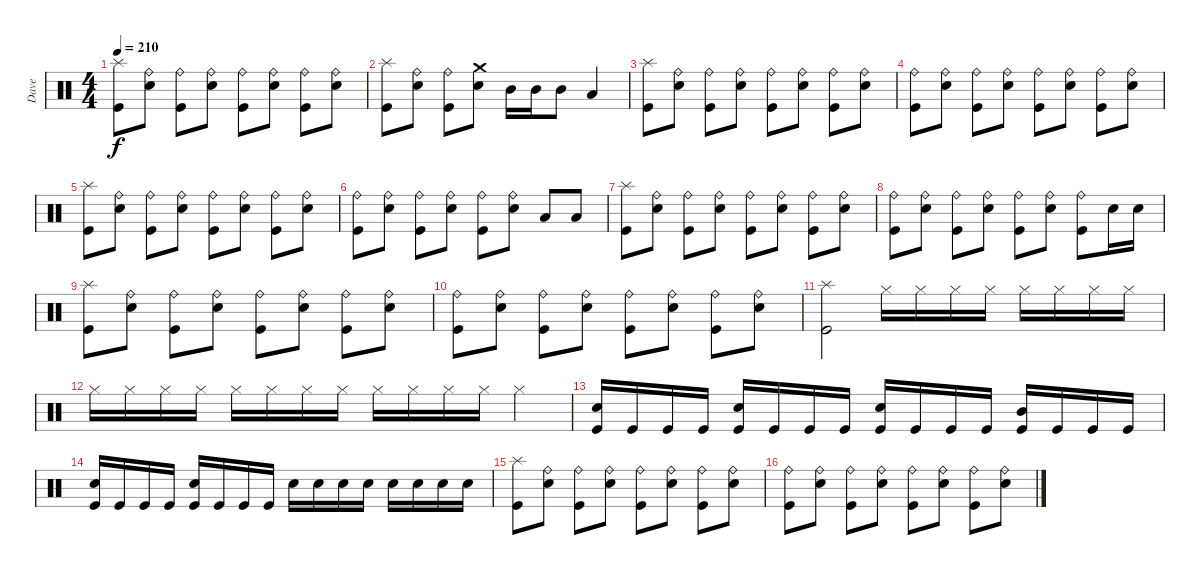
\track ("Dave" "Dave") {instrument percussion}
\staff {score}
\articulation defaults
\ts (4 4)
\tempo 210
\clef neutral
\ks c
("Kick (hit)" "Splash (hit)").8{dy f} ("Electric Snare (hit)" "Ride (bell)").8 ("Kick (hit)" "Ride (bell)").8 ("Electric Snare (hit)" "Ride (bell)").8 ("Kick (hit)" "Ride (bell)").8 ("Electric Snare (hit)" "Ride (bell)").8 ("Kick (hit)" "Ride (bell)").8 ("Electric Snare (hit)" "Ride (bell)").8 |
("Kick (hit)" "Splash (hit)").8 ("Electric Snare (hit)" "Ride (bell)").8 ("Kick (hit)" "Ride (bell)").8 ("Electric Snare (hit)" "Crash medium (hit)").8 "Mid Tom (hit)".16 "Mid Tom (hit)".16 "Mid Tom (hit)".8 "Low Tom (hit)".4 |
("Kick (hit)" "Splash (hit)").8 ("Electric Snare (hit)" "Ride (bell)").8 ("Kick (hit)" "Ride (bell)").8 ("Electric Snare (hit)" "Ride (bell)").8 ("Kick (hit)" "Ride (bell)").8 ("Electric Snare (hit)" "Ride (bell)").8 ("Kick (hit)" "Ride (bell)").8 ("Electric Snare (hit)" "Ride (bell)").8 |
("Kick (hit)" "Ride (bell)").8 ("Electric Snare (hit)" "Ride (bell)").8 ("Kick (hit)" "Ride (bell)").8 ("Electric Snare (hit)" "Ride (bell)").8 ("Kick (hit)" "Ride (bell)").8 ("Electric Snare (hit)" "Ride (bell)").8 ("Kick (hit)" "Ride (bell)").8 ("Electric Snare (hit)" "Ride (bell)").8 |
("Kick (hit)" "Splash (hit)").8 ("Electric Snare (hit)" "Ride (bell)").8 ("Kick (hit)" "Ride (bell)").8 ("Electric Snare (hit)" "Ride (bell)").8 ("Kick (hit)" "Ride (bell)").8 ("Electric Snare (hit)" "Ride (bell)").8 ("Kick (hit)" "Ride (bell)").8 ("Electric Snare (hit)" "Ride (bell)").8 |
("Kick (hit)" "Ride (bell)").8 ("Electric Snare (hit)" "Ride (bell)").8 ("Kick (hit)" "Ride (bell)").8 ("Electric Snare (hit)" "Ride (bell)").8 ("Kick (hit)" "Ride (bell)").8 ("Electric Snare (hit)" "Ride (bell)").8 "Low Tom (hit)".8 "Low Tom (hit)".8 |
("Kick (hit)" "Splash (hit)").8 ("Electric Snare (hit)" "Ride (bell)").8 ("Kick (hit)" "Ride (bell)").8 ("Electric Snare (hit)" "Ride (bell)").8 ("Kick (hit)" "Ride (bell)").8 ("Electric Snare (hit)" "Ride (bell)").8 ("Kick (hit)" "Ride (bell)").8 ("Electric Snare (hit)" "Ride (bell)").8 |
("Kick (hit)" "Ride (bell)").8 ("Electric Snare (hit)" "Ride (bell)").8 ("Kick (hit)" "Ride (bell)").8 ("Electric Snare (hit)" "Ride (bell)").8 ("Kick (hit)" "Ride (bell)").8 ("Electric Snare (hit)" "Ride (bell)").8 ("Kick (hit)" "Ride (bell)").8 "Electric Snare (hit)".16 "Electric Snare (hit)".16 |
("Kick (hit)" "Splash (hit)").8 ("Electric Snare (hit)" "Ride (bell)").8 ("Kick (hit)" "Ride (bell)").8 ("Electric Snare (hit)" "Ride (bell)").8 ("Kick (hit)" "Ride (bell)").8 ("Electric Snare (hit)" "Ride (bell)").8 ("Kick (hit)" "Ride (bell)").8 ("Electric Snare (hit)" "Ride (bell)").8 |
("Kick (hit)" "Ride (bell)").8 ("Electric Snare (hit)" "Ride (bell)").8 ("Kick (hit)" "Ride (bell)").8 ("Electric Snare (hit)" "Ride (bell)").8 ("Kick (hit)" "Ride (bell)").8 ("Electric Snare (hit)" "Ride (bell)").8 ("Kick (hit)" "Ride (bell)").8 ("Electric Snare (hit)" "Ride (bell)").8 |
("Kick (hit)" "Splash (hit)").2 "Hi-Hat (closed)".16 "Hi-Hat (closed)".16 "Hi-Hat (closed)".16 "Hi-Hat (closed)".16 "Hi-Hat (closed)".16 "Hi-Hat (closed)".16 "Hi-Hat (closed)".16 "Hi-Hat (closed)".16 |
"Hi-Hat (closed)".16 "Hi-Hat (closed)".16 "Hi-Hat (closed)".16 "Hi-Hat (closed)".16 "Hi-Hat (closed)".16 "Hi-Hat (closed)".16 "Hi-Hat (closed)".16 "Hi-Hat (closed)".16 "Hi-Hat (closed)".16 "Hi-Hat (closed)".16 "Hi-Hat (closed)".16 "Hi-Hat (closed)".16 "Hi-Hat (closed)".4 |
("Kick (hit)" "Electric Snare (hit)").16 "Kick (hit)".16 "Kick (hit)".16 "Kick (hit)".16 ("Kick (hit)" "Electric Snare (hit)").16 "Kick (hit)".16 "Kick (hit)".16 "Kick (hit)".16 ("Kick (hit)" "Electric Snare (hit)").16 "Kick (hit)".16 "Kick (hit)".16 "Kick (hit)".16 ("Kick (hit)" "Mid Tom (hit)").16 "Kick (hit)".16 "Kick (hit)".16 "Kick (hit)".16 |
("Kick (hit)" "Electric Snare (hit)").16 "Kick (hit)".16 "Kick (hit)".16 "Kick (hit)".16 ("Kick (hit)" "Electric Snare (hit)").16 "Kick (hit)".16 "Kick (hit)".16 "Kick (hit)".16 "Electric Snare (hit)".16 "Electric Snare (hit)".16 "Electric Snare (hit)".16 "Electric Snare (hit)".16 "Electric Snare (hit)".16 "Electric Snare (hit)".16 "Electric Snare (hit)".16 "Electric Snare (hit)".16 |
("Kick (hit)" "Splash (hit)").8 ("Electric Snare (hit)" "Ride (bell)").8 ("Kick (hit)" "Ride (bell)").8 ("Electric Snare (hit)" "Ride (bell)").8 ("Kick (hit)" "Ride (bell)").8 ("Electric Snare (hit)" "Ride (bell)").8 ("Kick (hit)" "Ride (bell)").8 ("Electric Snare (hit)" "Ride (bell)").8 |
("Kick (hit)" "Ride (bell)").8 ("Electric Snare (hit)" "Ride (bell)").8 ("Kick (hit)" "Ride (bell)").8 ("Electric Snare (hit)" "Ride (bell)").8 ("Kick (hit)" "Ride (bell)").8 ("Electric Snare (hit)" "Ride (bell)").8 ("Kick (hit)" "Ride (bell)").8 ("Electric Snare (hit)" "Ride (bell)").8
